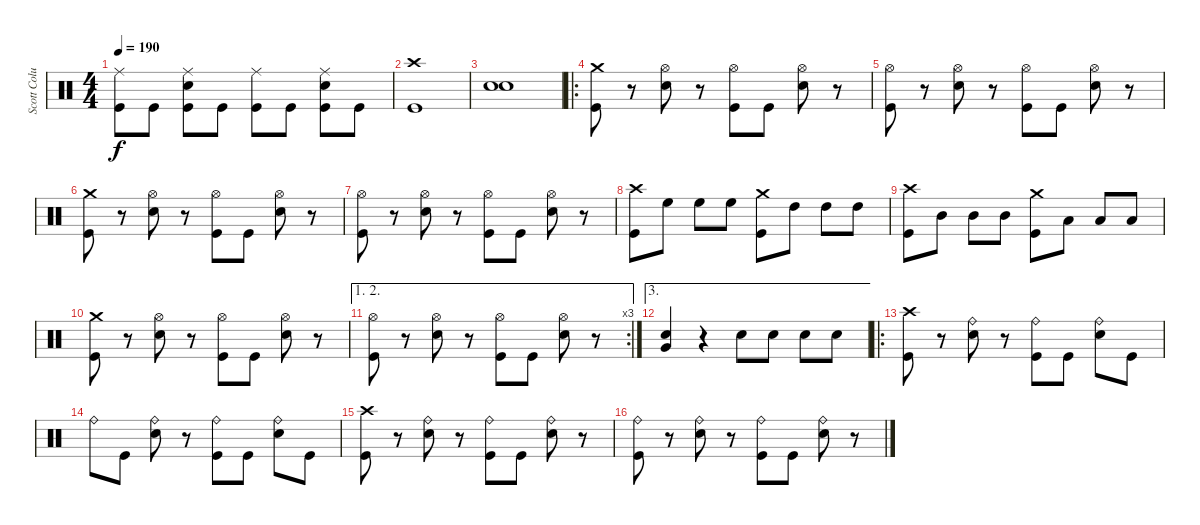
\track ("Scott Columbus" "Scott Colu") {instrument percussion}
\staff {score}
\articulation defaults
\ts (4 4)
\tempo 190
\clef neutral
\ks c
("Ride (middle)" "Kick (hit)").8{dy f} "Kick (hit)".8 ("Ride (middle)" "Snare (hit) 2" "Kick (hit)").8 "Kick (hit)".8 ("Ride (middle)" "Kick (hit)").8 "Kick (hit)".8 ("Ride (middle)" "Snare (hit) 2" "Kick (hit)").8 "Kick (hit)".8 |
("Crash high (hit)" "Kick (hit)").1 |
("Snare (hit)" "Snare (hit)").1 |
\ro
("Crash medium (hit)" "Kick (hit)").8 r.8 ("Hi-Hat (open)" "Snare (hit) 2").8 r.8 ("Hi-Hat (open)" "Kick (hit)").8 "Kick (hit)".8 ("Hi-Hat (open)" "Snare (hit) 2").8 r.8 |
("Hi-Hat (open)" "Kick (hit)").8 r.8 ("Hi-Hat (open)" "Snare (hit) 2").8 r.8 ("Hi-Hat (open)" "Kick (hit)").8 "Kick (hit)".8 ("Hi-Hat (open)" "Snare (hit) 2").8 r.8 |
("Crash medium (hit)" "Kick (hit)").8 r.8 ("Hi-Hat (open)" "Snare (hit) 2").8 r.8 ("Hi-Hat (open)" "Kick (hit)").8 "Kick (hit)".8 ("Hi-Hat (open)" "Snare (hit) 2").8 r.8 |
("Hi-Hat (open)" "Kick (hit)").8 r.8 ("Hi-Hat (open)" "Snare (hit) 2").8 r.8 ("Hi-Hat (open)" "Kick (hit)").8 "Kick (hit)".8 ("Hi-Hat (open)" "Snare (hit) 2").8 r.8 |
("Crash high (hit)" "Kick (hit)").8 "High Floor Tom (hit)".8 "High Floor Tom (hit)".8 "High Floor Tom (hit)".8 ("Crash medium (hit)" "Kick (hit)").8 "High Tom (hit)".8 "High Tom (hit)".8 "High Tom (hit)".8 |
("Crash high (hit)" "Kick (hit)").8 "Mid Tom (hit)".8 "Mid Tom (hit)".8 "Mid Tom (hit)".8 ("Crash medium (hit)" "Kick (hit)").8 "Low Tom (hit)".8 "Low Tom (hit)".8 "Low Tom (hit)".8 |
("Crash medium (hit)" "Kick (hit)").8 r.8 ("Hi-Hat (open)" "Snare (hit) 2").8 r.8 ("Hi-Hat (open)" "Kick (hit)").8 "Kick (hit)".8 ("Hi-Hat (open)" "Snare (hit) 2").8 r.8 |
\ae (1 2)
\rc 3
("Hi-Hat (open)" "Kick (hit)").8 r.8 ("Hi-Hat (open)" "Snare (hit) 2").8 r.8 ("Hi-Hat (open)" "Kick (hit)").8 "Kick (hit)".8 ("Hi-Hat (open)" "Snare (hit) 2").8 r.8 |
\ae 3
("Very Low Tom (hit)" "Snare (hit) 2").4 r.4 "Snare (hit) 2".8 "Snare (hit) 2".8 "Snare (hit) 2".8 "Snare (hit) 2".8 |
\ro
("Crash high (hit)" "Kick (hit)").8 r.8 ("Ride (bell)" "Snare (hit) 2").8 r.8 ("Ride (bell)" "Kick (hit)").8 "Kick (hit)".8 ("Ride (bell)" "Snare (hit) 2").8 "Kick (hit)".8 |
"Ride (bell)".8 "Kick (hit)".8 ("Ride (bell)" "Snare (hit) 2").8 r.8 ("Ride (bell)" "Kick (hit)").8 "Kick (hit)".8 ("Ride (bell)" "Snare (hit) 2").8 "Kick (hit)".8 |
("Crash high (hit)" "Kick (hit)").8 r.8 ("Ride (bell)" "Snare (hit) 2").8 r.8 ("Ride (bell)" "Kick (hit)").8 "Kick (hit)".8 ("Ride (bell)" "Snare (hit) 2").8 r.8 |
("Ride (bell)" "Kick (hit)").8 r.8 ("Ride (bell)" "Snare (hit) 2").8 r.8 ("Ride (bell)" "Kick (hit)").8 "Kick (hit)".8 ("Ride (bell)" "Snare (hit) 2").8 r.8
